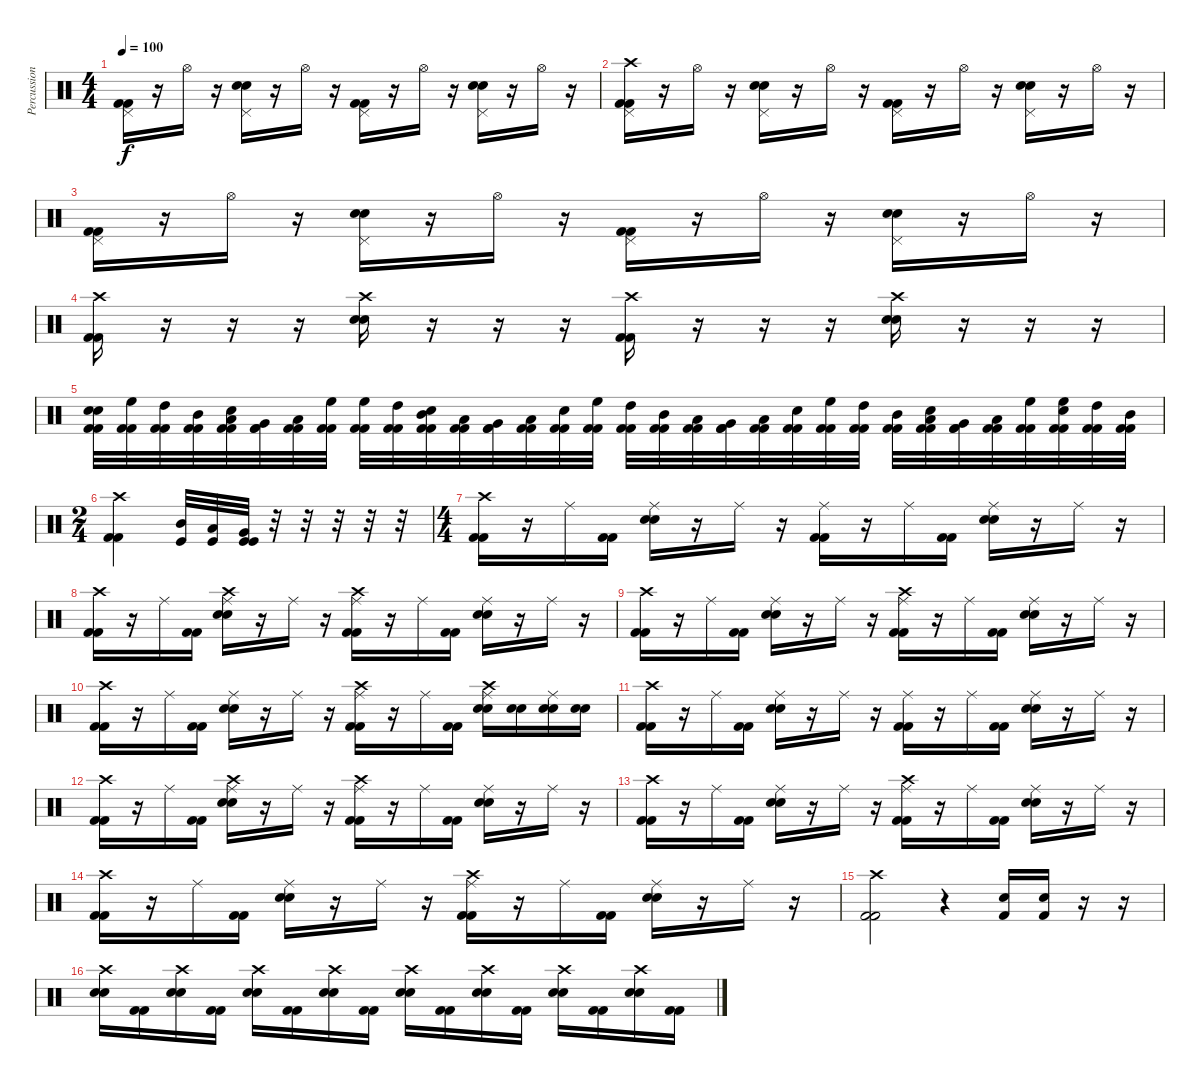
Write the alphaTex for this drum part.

\track ("Percussions" "Percussion") {instrument percussion}
\staff {score}
\articulation defaults
\ts (4 4)
\tempo 100
\clef neutral
\ks c
("Pedal Hi-Hat (hit)" "Kick (hit) 2" "Kick (hit) 2").16{dy f} r.16 "Hi-Hat (open)".16 r.16 ("Pedal Hi-Hat (hit)" "Electric Snare (hit)" "Electric Snare (hit)").16 r.16 "Hi-Hat (open)".16 r.16 ("Pedal Hi-Hat (hit)" "Kick (hit) 2" "Kick (hit) 2").16 r.16 "Hi-Hat (open)".16 r.16 ("Pedal Hi-Hat (hit)" "Electric Snare (hit)" "Electric Snare (hit)").16 r.16 "Hi-Hat (open)".16 r.16 |
("Crash high (hit)" "Pedal Hi-Hat (hit)" "Kick (hit) 2" "Kick (hit) 2").16 r.16 "Hi-Hat (open)".16 r.16 ("Pedal Hi-Hat (hit)" "Electric Snare (hit)" "Electric Snare (hit)").16 r.16 "Hi-Hat (open)".16 r.16 ("Pedal Hi-Hat (hit)" "Kick (hit) 2" "Kick (hit) 2").16 r.16 "Hi-Hat (open)".16 r.16 ("Pedal Hi-Hat (hit)" "Electric Snare (hit)" "Electric Snare (hit)").16 r.16 "Hi-Hat (open)".16 r.16 |
("Pedal Hi-Hat (hit)" "Kick (hit) 2" "Kick (hit) 2").16 r.16 "Hi-Hat (open)".16 r.16 ("Pedal Hi-Hat (hit)" "Electric Snare (hit)" "Electric Snare (hit)").16 r.16 "Hi-Hat (open)".16 r.16 ("Pedal Hi-Hat (hit)" "Kick (hit) 2" "Kick (hit) 2").16 r.16 "Hi-Hat (open)".16 r.16 ("Pedal Hi-Hat (hit)" "Electric Snare (hit)" "Electric Snare (hit)").16 r.16 "Hi-Hat (open)".16 r.16 |
("Crash high (hit)" "Kick (hit) 2" "Kick (hit) 2").16 r.16 r.16 r.16 ("Crash high (hit)" "Electric Snare (hit)" "Electric Snare (hit)").16 r.16 r.16 r.16 ("Crash high (hit)" "Kick (hit) 2" "Kick (hit) 2").16 r.16 r.16 r.16 ("Crash high (hit)" "Electric Snare (hit)" "Electric Snare (hit)").16 r.16 r.16 r.16 |
("Electric Snare (hit)" "Electric Snare (hit)" "Kick (hit) 2" "Kick (hit) 2").32 ("High Floor Tom (hit)" "Kick (hit) 2" "Kick (hit) 2").32 ("High Tom (hit)" "Kick (hit) 2" "Kick (hit) 2").32 ("Mid Tom (hit)" "Kick (hit) 2" "Kick (hit) 2").32 ("Low Tom (hit)" "Electric Snare (hit)" "Kick (hit) 2" "Kick (hit) 2").32 ("Very Low Tom (hit)" "Kick (hit) 2" "Kick (hit) 2").32 ("Low Floor Tom (hit)" "Kick (hit) 2" "Kick (hit) 2").32 ("High Floor Tom (hit)" "Kick (hit) 2" "Kick (hit) 2").32 ("High Floor Tom (hit)" "Kick (hit) 2" "Kick (hit) 2").32 ("High Tom (hit)" "Kick (hit) 2" "Kick (hit) 2").32 ("Mid Tom (hit)" "Electric Snare (hit)" "Kick (hit) 2" "Kick (hit) 2").32 ("Low Tom (hit)" "Kick (hit) 2" "Kick (hit) 2").32 ("Very Low Tom (hit)" "Kick (hit) 2" "Kick (hit) 2").32 ("Low Floor Tom (hit)" "Kick (hit) 2" "Kick (hit) 2").32 ("Electric Snare (hit)" "Kick (hit) 2" "Kick (hit) 2").32 ("High Floor Tom (hit)" "Kick (hit) 2" "Kick (hit) 2").32 ("High Tom (hit)" "Kick (hit) 2" "Kick (hit) 2").32 ("Mid Tom (hit)" "Kick (hit) 2" "Kick (hit) 2").32 ("Low Tom (hit)" "Kick (hit) 2" "Kick (hit) 2").32 ("Very Low Tom (hit)" "Kick (hit) 2" "Kick (hit) 2").32 ("Low Floor Tom (hit)" "Kick (hit) 2" "Kick (hit) 2").32 ("Electric Snare (hit)" "Kick (hit) 2" "Kick (hit) 2").32 ("High Floor Tom (hit)" "Kick (hit) 2" "Kick (hit) 2").32 ("High Tom (hit)" "Kick (hit) 2" "Kick (hit) 2").32 ("Mid Tom (hit)" "Kick (hit) 2" "Kick (hit) 2").32 ("Low Tom (hit)" "Electric Snare (hit)" "Kick (hit) 2" "Kick (hit) 2").32 ("Very Low Tom (hit)" "Kick (hit) 2" "Kick (hit) 2").32 ("Low Floor Tom (hit)" "Kick (hit) 2" "Kick (hit) 2").32 ("High Floor Tom (hit)" "Kick (hit) 2" "Kick (hit) 2").32 ("High Floor Tom (hit)" "Electric Snare (hit)" "Kick (hit) 2" "Kick (hit) 2").32 ("High Tom (hit)" "Kick (hit) 2" "Kick (hit) 2").32 ("Mid Tom (hit)" "Kick (hit) 2" "Kick (hit) 2").32 |
\ts (2 4)
("Crash high (hit)" "Kick (hit) 2" "Kick (hit) 2").4 ("Mid Tom (hit)" "Kick (hit)").32 ("Low Tom (hit)" "Kick (hit)").32 ("Very Low Tom (hit)" "Kick (hit)" "Kick (hit)").32 r.32 r.32 r.32 r.32 r.32 |
\ts (4 4)
("Crash high (hit)" "Kick (hit) 2" "Kick (hit) 2").16 r.16 "Ride (middle)".16 ("Kick (hit) 2" "Kick (hit) 2").16 ("Ride (middle)" "Electric Snare (hit)" "Electric Snare (hit)").16 r.16 "Ride (middle)".16 r.16 ("Ride (middle)" "Kick (hit) 2" "Kick (hit) 2").16 r.16 "Ride (middle)".16 ("Kick (hit) 2" "Kick (hit) 2").16 ("Ride (middle)" "Electric Snare (hit)" "Electric Snare (hit)").16 r.16 "Ride (middle)".16 r.16 |
("Crash high (hit)" "Kick (hit) 2" "Kick (hit) 2").16 r.16 "Ride (middle)".16 ("Kick (hit) 2" "Kick (hit) 2").16 ("Crash high (hit)" "Ride (middle)" "Electric Snare (hit)" "Electric Snare (hit)").16 r.16 "Ride (middle)".16 r.16 ("Crash high (hit)" "Ride (middle)" "Kick (hit) 2" "Kick (hit) 2").16 r.16 "Ride (middle)".16 ("Kick (hit) 2" "Kick (hit) 2").16 ("Ride (middle)" "Electric Snare (hit)" "Electric Snare (hit)").16 r.16 "Ride (middle)".16 r.16 |
("Crash high (hit)" "Kick (hit) 2" "Kick (hit) 2").16 r.16 "Ride (middle)".16 ("Kick (hit) 2" "Kick (hit) 2").16 ("Ride (middle)" "Electric Snare (hit)" "Electric Snare (hit)").16 r.16 "Ride (middle)".16 r.16 ("Crash high (hit)" "Ride (middle)" "Kick (hit) 2" "Kick (hit) 2").16 r.16 "Ride (middle)".16 ("Kick (hit) 2" "Kick (hit) 2").16 ("Ride (middle)" "Electric Snare (hit)" "Electric Snare (hit)").16 r.16 "Ride (middle)".16 r.16 |
("Crash high (hit)" "Kick (hit) 2" "Kick (hit) 2").16 r.16 "Ride (middle)".16 ("Kick (hit) 2" "Kick (hit) 2").16 ("Ride (middle)" "Electric Snare (hit)" "Electric Snare (hit)").16 r.16 "Ride (middle)".16 r.16 ("Crash high (hit)" "Ride (middle)" "Kick (hit) 2" "Kick (hit) 2").16 r.16 "Ride (middle)".16 ("Kick (hit) 2" "Kick (hit) 2").16 ("Crash high (hit)" "Ride (middle)" "Electric Snare (hit)" "Electric Snare (hit)").16 ("Electric Snare (hit)" "Electric Snare (hit)").16 ("Ride (middle)" "Electric Snare (hit)" "Electric Snare (hit)").16 ("Electric Snare (hit)" "Snare (hit)").16 |
("Crash high (hit)" "Kick (hit) 2" "Kick (hit) 2").16 r.16 "Ride (middle)".16 ("Kick (hit) 2" "Kick (hit) 2").16 ("Ride (middle)" "Electric Snare (hit)" "Electric Snare (hit)").16 r.16 "Ride (middle)".16 r.16 ("Ride (middle)" "Kick (hit) 2" "Kick (hit) 2").16 r.16 "Ride (middle)".16 ("Kick (hit) 2" "Kick (hit) 2").16 ("Ride (middle)" "Electric Snare (hit)" "Electric Snare (hit)").16 r.16 "Ride (middle)".16 r.16 |
("Crash high (hit)" "Kick (hit) 2" "Kick (hit) 2").16 r.16 "Ride (middle)".16 ("Kick (hit) 2" "Kick (hit) 2").16 ("Crash high (hit)" "Ride (middle)" "Electric Snare (hit)" "Electric Snare (hit)").16 r.16 "Ride (middle)".16 r.16 ("Crash high (hit)" "Ride (middle)" "Kick (hit) 2" "Kick (hit) 2").16 r.16 "Ride (middle)".16 ("Kick (hit) 2" "Kick (hit) 2").16 ("Ride (middle)" "Electric Snare (hit)" "Electric Snare (hit)").16 r.16 "Ride (middle)".16 r.16 |
("Crash high (hit)" "Kick (hit) 2" "Kick (hit) 2").16 r.16 "Ride (middle)".16 ("Kick (hit) 2" "Kick (hit) 2").16 ("Ride (middle)" "Electric Snare (hit)" "Electric Snare (hit)").16 r.16 "Ride (middle)".16 r.16 ("Crash high (hit)" "Ride (middle)" "Kick (hit) 2" "Kick (hit) 2").16 r.16 "Ride (middle)".16 ("Kick (hit) 2" "Kick (hit) 2").16 ("Ride (middle)" "Electric Snare (hit)" "Electric Snare (hit)").16 r.16 "Ride (middle)".16 r.16 |
("Crash high (hit)" "Kick (hit) 2" "Kick (hit) 2").16 r.16 "Ride (middle)".16 ("Kick (hit) 2" "Kick (hit) 2").16 ("Ride (middle)" "Electric Snare (hit)" "Electric Snare (hit)").16 r.16 "Ride (middle)".16 r.16 ("Crash high (hit)" "Ride (middle)" "Kick (hit) 2" "Kick (hit) 2").16 r.16 "Ride (middle)".16 ("Kick (hit) 2" "Kick (hit) 2").16 ("Ride (middle)" "Electric Snare (hit)" "Electric Snare (hit)").16 r.16 "Ride (middle)".16 r.16 |
("Crash high (hit)" "Kick (hit) 2" "Kick (hit) 2").2 r.4 ("Electric Snare (hit)" "Kick (hit) 2").16 ("Electric Snare (hit)" "Kick (hit) 2").16 r.16 r.16 |
("Crash high (hit)" "Electric Snare (hit)" "Electric Snare (hit)").16 ("Kick (hit) 2" "Kick (hit) 2").16 ("Crash high (hit)" "Electric Snare (hit)" "Electric Snare (hit)").16 ("Kick (hit) 2" "Kick (hit) 2").16 ("Crash high (hit)" "Electric Snare (hit)" "Electric Snare (hit)").16 ("Kick (hit) 2" "Kick (hit) 2").16 ("Crash high (hit)" "Electric Snare (hit)" "Electric Snare (hit)").16 ("Kick (hit) 2" "Kick (hit) 2").16 ("Crash high (hit)" "Electric Snare (hit)" "Electric Snare (hit)").16 ("Kick (hit) 2" "Kick (hit) 2").16 ("Crash high (hit)" "Electric Snare (hit)" "Electric Snare (hit)").16 ("Kick (hit) 2" "Kick (hit) 2").16 ("Crash high (hit)" "Electric Snare (hit)" "Electric Snare (hit)").16 ("Kick (hit) 2" "Kick (hit) 2").16 ("Crash high (hit)" "Electric Snare (hit)" "Electric Snare (hit)").16 ("Kick (hit) 2" "Kick (hit) 2").16
